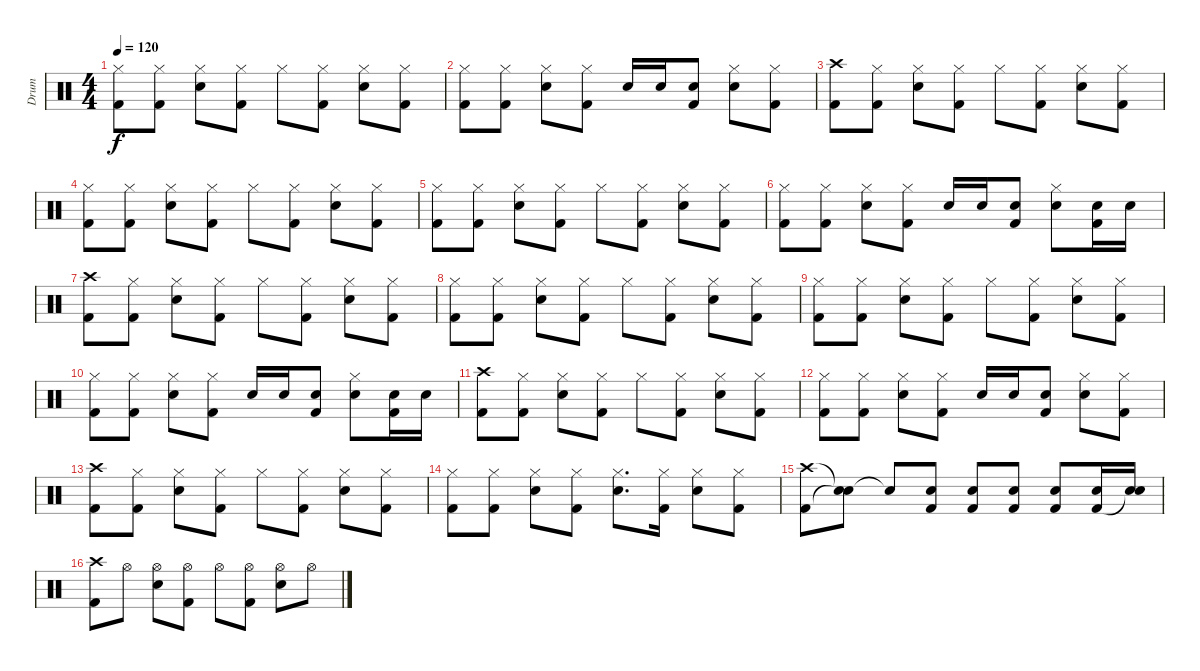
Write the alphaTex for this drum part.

\track ("Drum" "Drum") {instrument percussion}
\staff {score}
\articulation defaults
\ts (4 4)
\tempo 120
\clef neutral
\ks c
("Hi-Hat (closed)" "Kick (hit) 2").8{dy f} ("Hi-Hat (closed)" "Kick (hit) 2").8 ("Hi-Hat (closed)" "Snare (hit) 2").8 ("Hi-Hat (closed)" "Kick (hit) 2").8 "Hi-Hat (closed)".8 ("Hi-Hat (closed)" "Kick (hit) 2").8 ("Hi-Hat (closed)" "Snare (hit) 2").8 ("Hi-Hat (closed)" "Kick (hit) 2").8 |
("Hi-Hat (closed)" "Kick (hit) 2").8 ("Hi-Hat (closed)" "Kick (hit) 2").8 ("Hi-Hat (closed)" "Snare (hit) 2").8 ("Hi-Hat (closed)" "Kick (hit) 2").8 "Snare (hit) 2".16 "Snare (hit) 2".16 ("Snare (hit) 2" "Kick (hit) 2").8 ("Hi-Hat (closed)" "Snare (hit) 2").8 ("Hi-Hat (closed)" "Kick (hit) 2").8 |
("Crash high (hit)" "Kick (hit) 2").8 ("Hi-Hat (closed)" "Kick (hit) 2").8 ("Hi-Hat (closed)" "Snare (hit) 2").8 ("Hi-Hat (closed)" "Kick (hit) 2").8 "Hi-Hat (closed)".8 ("Hi-Hat (closed)" "Kick (hit) 2").8 ("Hi-Hat (closed)" "Snare (hit) 2").8 ("Hi-Hat (closed)" "Kick (hit) 2").8 |
("Hi-Hat (closed)" "Kick (hit) 2").8 ("Hi-Hat (closed)" "Kick (hit) 2").8 ("Hi-Hat (closed)" "Snare (hit) 2").8 ("Hi-Hat (closed)" "Kick (hit) 2").8 "Hi-Hat (closed)".8 ("Hi-Hat (closed)" "Kick (hit) 2").8 ("Hi-Hat (closed)" "Snare (hit) 2").8 ("Hi-Hat (closed)" "Kick (hit) 2").8 |
("Hi-Hat (closed)" "Kick (hit) 2").8 ("Hi-Hat (closed)" "Kick (hit) 2").8 ("Hi-Hat (closed)" "Snare (hit) 2").8 ("Hi-Hat (closed)" "Kick (hit) 2").8 "Hi-Hat (closed)".8 ("Hi-Hat (closed)" "Kick (hit) 2").8 ("Hi-Hat (closed)" "Snare (hit) 2").8 ("Hi-Hat (closed)" "Kick (hit) 2").8 |
("Hi-Hat (closed)" "Kick (hit) 2").8 ("Hi-Hat (closed)" "Kick (hit) 2").8 ("Hi-Hat (closed)" "Snare (hit) 2").8 ("Hi-Hat (closed)" "Kick (hit) 2").8 "Snare (hit) 2".16 "Snare (hit) 2".16 ("Snare (hit) 2" "Kick (hit) 2").8 ("Hi-Hat (closed)" "Snare (hit) 2").8 ("Snare (hit) 2" "Kick (hit) 2").16 "Snare (hit) 2".16 |
("Crash high (hit)" "Kick (hit) 2").8 ("Hi-Hat (closed)" "Kick (hit) 2").8 ("Hi-Hat (closed)" "Snare (hit) 2").8 ("Hi-Hat (closed)" "Kick (hit) 2").8 "Hi-Hat (closed)".8 ("Hi-Hat (closed)" "Kick (hit) 2").8 ("Hi-Hat (closed)" "Snare (hit) 2").8 ("Hi-Hat (closed)" "Kick (hit) 2").8 |
("Hi-Hat (closed)" "Kick (hit) 2").8 ("Hi-Hat (closed)" "Kick (hit) 2").8 ("Hi-Hat (closed)" "Snare (hit) 2").8 ("Hi-Hat (closed)" "Kick (hit) 2").8 "Hi-Hat (closed)".8 ("Hi-Hat (closed)" "Kick (hit) 2").8 ("Hi-Hat (closed)" "Snare (hit) 2").8 ("Hi-Hat (closed)" "Kick (hit) 2").8 |
("Hi-Hat (closed)" "Kick (hit) 2").8 ("Hi-Hat (closed)" "Kick (hit) 2").8 ("Hi-Hat (closed)" "Snare (hit) 2").8 ("Hi-Hat (closed)" "Kick (hit) 2").8 "Hi-Hat (closed)".8 ("Hi-Hat (closed)" "Kick (hit) 2").8 ("Hi-Hat (closed)" "Snare (hit) 2").8 ("Hi-Hat (closed)" "Kick (hit) 2").8 |
("Hi-Hat (closed)" "Kick (hit) 2").8 ("Hi-Hat (closed)" "Kick (hit) 2").8 ("Hi-Hat (closed)" "Snare (hit) 2").8 ("Hi-Hat (closed)" "Kick (hit) 2").8 "Snare (hit) 2".16 "Snare (hit) 2".16 ("Snare (hit) 2" "Kick (hit) 2").8 ("Hi-Hat (closed)" "Snare (hit) 2").8 ("Snare (hit) 2" "Kick (hit) 2").16 "Snare (hit) 2".16 |
("Crash high (hit)" "Kick (hit) 2").8 ("Hi-Hat (closed)" "Kick (hit) 2").8 ("Hi-Hat (closed)" "Snare (hit) 2").8 ("Hi-Hat (closed)" "Kick (hit) 2").8 "Hi-Hat (closed)".8 ("Hi-Hat (closed)" "Kick (hit) 2").8 ("Hi-Hat (closed)" "Snare (hit) 2").8 ("Hi-Hat (closed)" "Kick (hit) 2").8 |
("Hi-Hat (closed)" "Kick (hit) 2").8 ("Hi-Hat (closed)" "Kick (hit) 2").8 ("Hi-Hat (closed)" "Snare (hit) 2").8 ("Hi-Hat (closed)" "Kick (hit) 2").8 "Snare (hit) 2".16 "Snare (hit) 2".16 ("Snare (hit) 2" "Kick (hit) 2").8 ("Hi-Hat (closed)" "Snare (hit) 2").8 ("Hi-Hat (closed)" "Kick (hit) 2").8 |
("Crash high (hit)" "Kick (hit) 2").8 ("Hi-Hat (closed)" "Kick (hit) 2").8 ("Hi-Hat (closed)" "Snare (hit) 2").8 ("Hi-Hat (closed)" "Kick (hit) 2").8 "Hi-Hat (closed)".8 ("Hi-Hat (closed)" "Kick (hit) 2").8 ("Hi-Hat (closed)" "Snare (hit) 2").8 ("Hi-Hat (closed)" "Kick (hit) 2").8 |
("Hi-Hat (closed)" "Kick (hit) 2").8 ("Hi-Hat (closed)" "Kick (hit) 2").8 ("Hi-Hat (closed)" "Snare (hit) 2").8 ("Hi-Hat (closed)" "Kick (hit) 2").8 ("Hi-Hat (closed)" "Snare (hit) 2").8{d} ("Hi-Hat (closed)" "Kick (hit) 2").16 ("Hi-Hat (closed)" "Snare (hit) 2").8 ("Hi-Hat (closed)" "Kick (hit) 2").8 |
("Crash high (hit)" "Kick (hit) 2").8 ("Snare (hit)"{t} "Snare (hit)"{t}).8 "Snare (hit)"{t}.8 ("Snare (hit) 2" "Kick (hit) 2").8 ("Snare (hit) 2" "Kick (hit) 2").8 ("Snare (hit) 2" "Kick (hit) 2").8 ("Snare (hit) 2" "Kick (hit) 2").8 ("Snare (hit) 2" "Kick (hit) 2").16 ("Snare (hit) 2" "Snare (hit)"{t}).16 |
("Crash high (hit)" "Kick (hit) 2").8 "Hi-Hat (open)".8 ("Hi-Hat (open)" "Snare (hit) 2").8 ("Hi-Hat (open)" "Kick (hit) 2").8 "Hi-Hat (open)".8 ("Hi-Hat (open)" "Kick (hit) 2").8 ("Hi-Hat (open)" "Snare (hit) 2").8 "Hi-Hat (open)".8
